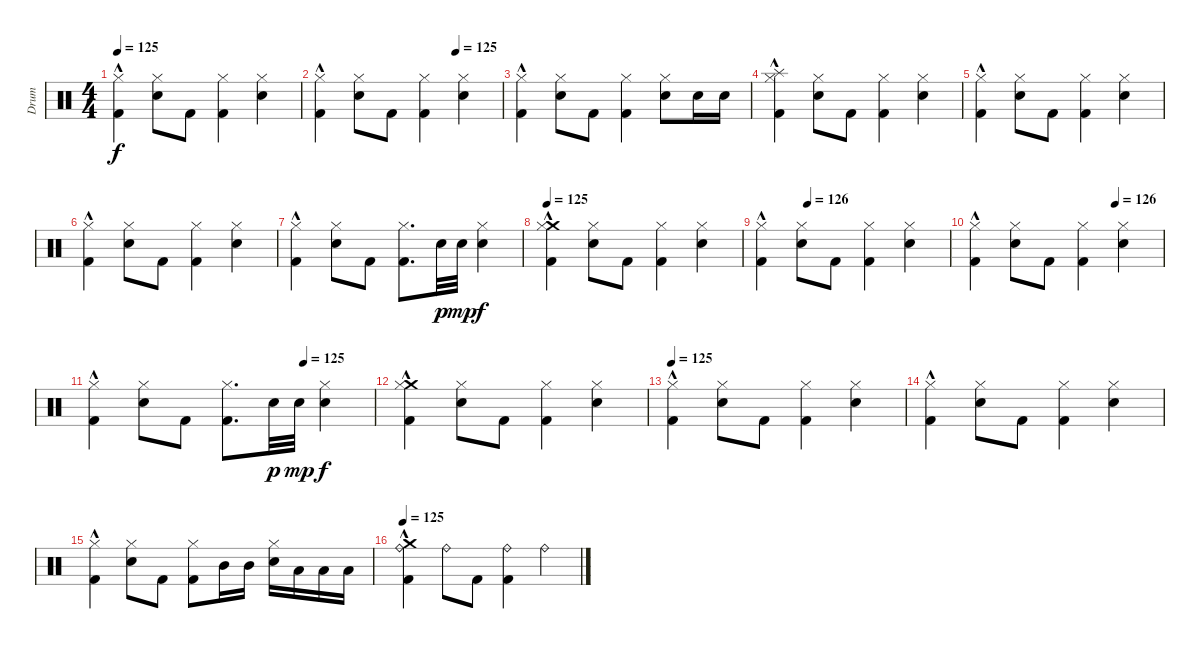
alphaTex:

\track ("Drum" "Drum") {instrument percussion}
\staff {score}
\articulation defaults
\ts (4 4)
\tempo 125
\clef neutral
\ks c
("Hi-Hat (closed)" "Kick (hit) 2"{hac}).4{dy f} ("Electric Snare (hit)" "Hi-Hat (closed)").8 "Kick (hit) 2".8 ("Hi-Hat (closed)" "Kick (hit) 2").4 ("Hi-Hat (closed)" "Electric Snare (hit)").4 |
\tempo (125 0.75)
("Kick (hit) 2"{hac} "Hi-Hat (closed)").4 ("Hi-Hat (closed)" "Electric Snare (hit)").8 "Kick (hit) 2".8 ("Hi-Hat (closed)" "Kick (hit) 2").4 ("Electric Snare (hit)" "Hi-Hat (closed)").4 |
("Hi-Hat (closed)" "Kick (hit) 2"{hac}).4 ("Hi-Hat (closed)" "Electric Snare (hit)").8 "Kick (hit) 2".8 ("Hi-Hat (closed)" "Kick (hit) 2").4 ("Hi-Hat (closed)" "Electric Snare (hit)").8 "Electric Snare (hit)".16 "Electric Snare (hit)".16 |
("Splash (hit)" "Kick (hit) 2"{hac} "Hi-Hat (closed)").4 ("Electric Snare (hit)" "Hi-Hat (closed)").8 "Kick (hit) 2".8 ("Hi-Hat (closed)" "Kick (hit) 2").4 ("Electric Snare (hit)" "Hi-Hat (closed)").4 |
("Kick (hit) 2"{hac} "Hi-Hat (closed)").4 ("Hi-Hat (closed)" "Electric Snare (hit)").8 "Kick (hit) 2".8 ("Kick (hit) 2" "Hi-Hat (closed)").4 ("Electric Snare (hit)" "Hi-Hat (closed)").4 |
("Kick (hit) 2"{hac} "Hi-Hat (closed)").4 ("Electric Snare (hit)" "Hi-Hat (closed)").8 "Kick (hit) 2".8 ("Kick (hit) 2" "Hi-Hat (closed)").4 ("Hi-Hat (closed)" "Electric Snare (hit)").4 |
("Kick (hit) 2"{hac} "Hi-Hat (closed)").4 ("Electric Snare (hit)" "Hi-Hat (closed)").8 "Kick (hit) 2".8 ("Kick (hit) 2" "Hi-Hat (closed)").8{d} "Electric Snare (hit)".32{dy p} "Electric Snare (hit)".32{dy mp} ("Electric Snare (hit)" "Hi-Hat (closed)").4{dy f} |
\tempo 125
("Crash medium (hit)" "Kick (hit) 2"{hac} "Hi-Hat (closed)").4 ("Electric Snare (hit)" "Hi-Hat (closed)").8 "Kick (hit) 2".8 ("Kick (hit) 2" "Hi-Hat (closed)").4 ("Electric Snare (hit)" "Hi-Hat (closed)").4 |
\tempo (126 0.25)
("Kick (hit) 2"{hac} "Hi-Hat (closed)").4 ("Hi-Hat (closed)" "Electric Snare (hit)").8 "Kick (hit) 2".8 ("Hi-Hat (closed)" "Kick (hit) 2").4 ("Electric Snare (hit)" "Hi-Hat (closed)").4 |
\tempo (126 0.75)
("Kick (hit) 2"{hac} "Hi-Hat (closed)").4 ("Hi-Hat (closed)" "Electric Snare (hit)").8 "Kick (hit) 2".8 ("Kick (hit) 2" "Hi-Hat (closed)").4 ("Hi-Hat (closed)" "Electric Snare (hit)").4 |
\tempo (125 0.75)
("Kick (hit) 2"{hac} "Hi-Hat (closed)").4 ("Hi-Hat (closed)" "Electric Snare (hit)").8 "Kick (hit) 2".8 ("Hi-Hat (closed)" "Kick (hit) 2").8{d} "Electric Snare (hit)".32{dy p} "Electric Snare (hit)".32{dy mp} ("Electric Snare (hit)" "Hi-Hat (closed)").4{dy f} |
("Crash medium (hit)" "Hi-Hat (closed)" "Kick (hit) 2"{hac}).4 ("Electric Snare (hit)" "Hi-Hat (closed)").8 "Kick (hit) 2".8 ("Hi-Hat (closed)" "Kick (hit) 2").4 ("Hi-Hat (closed)" "Electric Snare (hit)").4 |
\tempo 125
("Hi-Hat (closed)" "Kick (hit) 2"{hac}).4 ("Hi-Hat (closed)" "Electric Snare (hit)").8 "Kick (hit) 2".8 ("Hi-Hat (closed)" "Kick (hit) 2").4 ("Electric Snare (hit)" "Hi-Hat (closed)").4 |
("Kick (hit) 2"{hac} "Hi-Hat (closed)").4 ("Hi-Hat (closed)" "Electric Snare (hit)").8 "Kick (hit) 2".8 ("Kick (hit) 2" "Hi-Hat (closed)").4 ("Electric Snare (hit)" "Hi-Hat (closed)").4 |
("Kick (hit) 2"{hac} "Hi-Hat (closed)").4 ("Hi-Hat (closed)" "Electric Snare (hit)").8 "Kick (hit) 2".8 ("Kick (hit) 2" "Hi-Hat (closed)").8 "Mid Tom (hit)".16 "Mid Tom (hit)".16 ("Hi-Hat (closed)" "Electric Snare (hit)").16 "Low Floor Tom (hit)".16 "Low Floor Tom (hit)".16 "Low Floor Tom (hit)".16 |
\tempo 125
("Crash medium (hit)" "Ride (bell)" "Kick (hit) 2"{hac}).4 "Ride (bell)".8 "Kick (hit) 2".8 ("Kick (hit) 2" "Ride (bell)").4 "Ride (bell)".4
